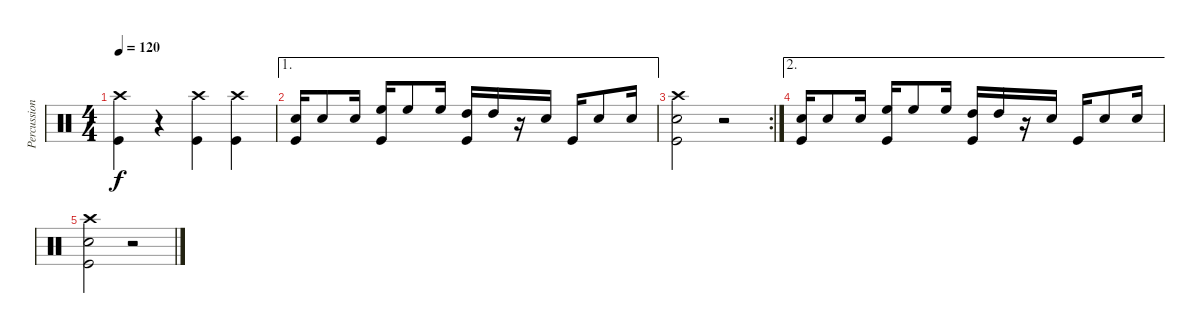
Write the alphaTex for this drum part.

\track ("Percussion" "Percussion") {instrument percussion}
\staff {score}
\articulation defaults
\ts (4 4)
\tempo 120
\clef neutral
\ks c
("Crash high (hit)" "Kick (hit)").4{dy f} r.4 ("Crash high (hit)" "Kick (hit)").4 ("Crash high (hit)" "Kick (hit)").4 |
\ae 1
("Snare (hit) 2" "Kick (hit)").16 "Snare (hit) 2".8 "Snare (hit) 2".16 ("High Floor Tom (hit)" "Kick (hit)").16 "High Floor Tom (hit)".8 "High Floor Tom (hit)".16 ("High Tom (hit)" "Kick (hit)").16 "High Tom (hit)".16 r.16 "Snare (hit) 2".16 "Kick (hit)".16 "Snare (hit) 2".8 "Snare (hit) 2".16 |
\rc 2
("Crash high (hit)" "Snare (hit) 2" "Kick (hit)").2 r.2 |
\ae 2
("Snare (hit) 2" "Kick (hit)").16 "Snare (hit) 2".8 "Snare (hit) 2".16 ("High Floor Tom (hit)" "Kick (hit)").16 "High Floor Tom (hit)".8 "High Floor Tom (hit)".16 ("High Tom (hit)" "Kick (hit)").16 "High Tom (hit)".16 r.16 "Snare (hit) 2".16 "Kick (hit)".16 "Snare (hit) 2".8 "Snare (hit) 2".16 |
("Crash high (hit)" "Snare (hit) 2" "Kick (hit)").2 r.2
